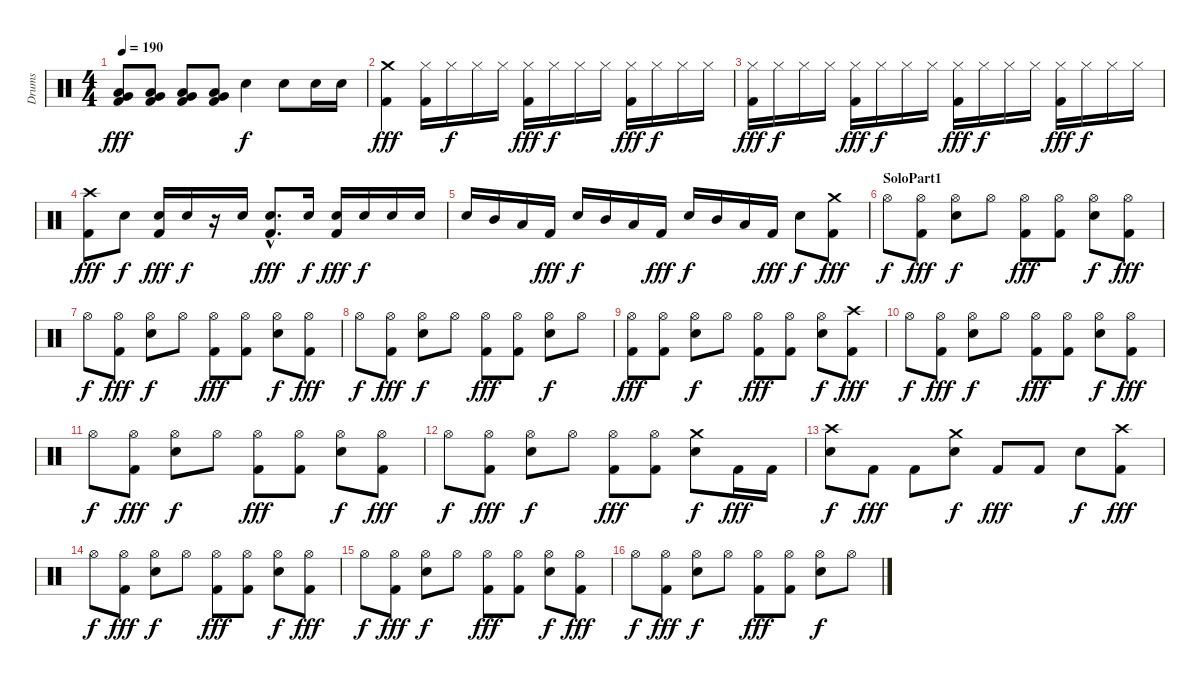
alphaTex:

\track ("Drums" "Drums") {instrument percussion}
\staff {score}
\articulation defaults
\ts (4 4)
\tempo 190
\clef neutral
\ks c
("Very Low Tom (hit)" "Low Floor Tom (hit)" "Kick (hit) 2").8{dy fff} ("Very Low Tom (hit)" "Low Floor Tom (hit)" "Kick (hit) 2").8 ("Very Low Tom (hit)" "Low Floor Tom (hit)" "Kick (hit) 2").8 ("Very Low Tom (hit)" "Low Floor Tom (hit)" "Kick (hit) 2").8 "Electric Snare (hit)".4{dy f} "Electric Snare (hit)".8 "Electric Snare (hit)".16 "Electric Snare (hit)".16 |
("Crash medium (hit)" "Kick (hit) 2").4{dy fff} ("Hi-Hat (closed)" "Kick (hit) 2").16 "Hi-Hat (closed)".16{dy f} "Hi-Hat (closed)".16 "Hi-Hat (closed)".16 ("Hi-Hat (closed)" "Kick (hit) 2").16{dy fff} "Hi-Hat (closed)".16{dy f} "Hi-Hat (closed)".16 "Hi-Hat (closed)".16 ("Hi-Hat (closed)" "Kick (hit) 2").16{dy fff} "Hi-Hat (closed)".16{dy f} "Hi-Hat (closed)".16 "Hi-Hat (closed)".16 |
("Hi-Hat (closed)" "Kick (hit) 2").16{dy fff} "Hi-Hat (closed)".16{dy f} "Hi-Hat (closed)".16 "Hi-Hat (closed)".16 ("Hi-Hat (closed)" "Kick (hit) 2").16{dy fff} "Hi-Hat (closed)".16{dy f} "Hi-Hat (closed)".16 "Hi-Hat (closed)".16 ("Hi-Hat (closed)" "Kick (hit) 2").16{dy fff} "Hi-Hat (closed)".16{dy f} "Hi-Hat (closed)".16 "Hi-Hat (closed)".16 ("Hi-Hat (closed)" "Kick (hit) 2").16{dy fff} "Hi-Hat (closed)".16{dy f} "Hi-Hat (closed)".16 "Hi-Hat (closed)".16 |
("Crash high (hit)" "Kick (hit) 2").8{dy fff} "Electric Snare (hit)".8{dy f} ("Electric Snare (hit)" "Kick (hit) 2").16{dy fff} "Electric Snare (hit)".16{dy f} r.16 "Electric Snare (hit)".16 ("Electric Snare (hit)"{hac} "Kick (hit) 2"{hac}).8{d dy fff} "Electric Snare (hit)".16{dy f} ("Electric Snare (hit)" "Kick (hit) 2").16{dy fff} "Electric Snare (hit)".16{dy f} "Electric Snare (hit)".16 "Electric Snare (hit)".16 |
"Electric Snare (hit)".16 "Mid Tom (hit)".16 "Low Tom (hit)".16 "Kick (hit) 2".16{dy fff} "Electric Snare (hit)".16{dy f} "Mid Tom (hit)".16 "Low Tom (hit)".16 "Kick (hit) 2".16{dy fff} "Electric Snare (hit)".16{dy f} "Mid Tom (hit)".16 "Low Tom (hit)".16 "Kick (hit) 2".16{dy fff} "Electric Snare (hit)".8{dy f} ("Crash medium (hit)" "Kick (hit) 2").8{dy fff} |
\section ("" "SoloPart1")
"Hi-Hat (open)".8{dy f} ("Hi-Hat (open)" "Kick (hit) 2").8{dy fff} ("Hi-Hat (open)" "Electric Snare (hit)").8{dy f} "Hi-Hat (open)".8 ("Hi-Hat (open)" "Kick (hit) 2").8{dy fff} ("Hi-Hat (open)" "Kick (hit) 2").8 ("Hi-Hat (open)" "Electric Snare (hit)").8{dy f} ("Hi-Hat (open)" "Kick (hit) 2").8{dy fff} |
"Hi-Hat (open)".8{dy f} ("Hi-Hat (open)" "Kick (hit) 2").8{dy fff} ("Hi-Hat (open)" "Electric Snare (hit)").8{dy f} "Hi-Hat (open)".8 ("Hi-Hat (open)" "Kick (hit) 2").8{dy fff} ("Hi-Hat (open)" "Kick (hit) 2").8 ("Hi-Hat (open)" "Electric Snare (hit)").8{dy f} ("Hi-Hat (open)" "Kick (hit) 2").8{dy fff} |
"Hi-Hat (open)".8{dy f} ("Hi-Hat (open)" "Kick (hit) 2").8{dy fff} ("Hi-Hat (open)" "Electric Snare (hit)").8{dy f} "Hi-Hat (open)".8 ("Hi-Hat (open)" "Kick (hit) 2").8{dy fff} ("Hi-Hat (open)" "Kick (hit) 2").8 ("Hi-Hat (open)" "Electric Snare (hit)").8{dy f} "Hi-Hat (open)".8 |
("Hi-Hat (open)" "Kick (hit) 2").8{dy fff} ("Hi-Hat (open)" "Kick (hit) 2").8 ("Hi-Hat (open)" "Electric Snare (hit)").8{dy f} "Hi-Hat (open)".8 ("Hi-Hat (open)" "Kick (hit) 2").8{dy fff} ("Hi-Hat (open)" "Kick (hit) 2").8 ("Hi-Hat (open)" "Electric Snare (hit)").8{dy f} ("Crash high (hit)" "Kick (hit) 2").8{dy fff} |
"Hi-Hat (open)".8{dy f} ("Hi-Hat (open)" "Kick (hit) 2").8{dy fff} ("Hi-Hat (open)" "Electric Snare (hit)").8{dy f} "Hi-Hat (open)".8 ("Hi-Hat (open)" "Kick (hit) 2").8{dy fff} ("Hi-Hat (open)" "Kick (hit) 2").8 ("Hi-Hat (open)" "Electric Snare (hit)").8{dy f} ("Hi-Hat (open)" "Kick (hit) 2").8{dy fff} |
"Hi-Hat (open)".8{dy f} ("Hi-Hat (open)" "Kick (hit) 2").8{dy fff} ("Hi-Hat (open)" "Electric Snare (hit)").8{dy f} "Hi-Hat (open)".8 ("Hi-Hat (open)" "Kick (hit) 2").8{dy fff} ("Hi-Hat (open)" "Kick (hit) 2").8 ("Hi-Hat (open)" "Electric Snare (hit)").8{dy f} ("Hi-Hat (open)" "Kick (hit) 2").8{dy fff} |
"Hi-Hat (open)".8{dy f} ("Hi-Hat (open)" "Kick (hit) 2").8{dy fff} ("Hi-Hat (open)" "Electric Snare (hit)").8{dy f} "Hi-Hat (open)".8 ("Hi-Hat (open)" "Kick (hit) 2").8{dy fff} ("Hi-Hat (open)" "Kick (hit) 2").8 ("Crash medium (hit)" "Electric Snare (hit)").8{dy f} "Kick (hit) 2".16{dy fff} "Kick (hit) 2".16 |
("Crash high (hit)" "Electric Snare (hit)").8{dy f} "Kick (hit) 2".8{dy fff} "Kick (hit) 2".8 ("Crash medium (hit)" "Electric Snare (hit)").8{dy f} "Kick (hit) 2".8{dy fff} "Kick (hit) 2".8 "Electric Snare (hit)".8{dy f} ("Crash high (hit)" "Kick (hit) 2").8{dy fff} |
"Hi-Hat (open)".8{dy f} ("Hi-Hat (open)" "Kick (hit) 2").8{dy fff} ("Hi-Hat (open)" "Electric Snare (hit)").8{dy f} "Hi-Hat (open)".8 ("Hi-Hat (open)" "Kick (hit) 2").8{dy fff} ("Hi-Hat (open)" "Kick (hit) 2").8 ("Hi-Hat (open)" "Electric Snare (hit)").8{dy f} ("Hi-Hat (open)" "Kick (hit) 2").8{dy fff} |
"Hi-Hat (open)".8{dy f} ("Hi-Hat (open)" "Kick (hit) 2").8{dy fff} ("Hi-Hat (open)" "Electric Snare (hit)").8{dy f} "Hi-Hat (open)".8 ("Hi-Hat (open)" "Kick (hit) 2").8{dy fff} ("Hi-Hat (open)" "Kick (hit) 2").8 ("Hi-Hat (open)" "Electric Snare (hit)").8{dy f} ("Hi-Hat (open)" "Kick (hit) 2").8{dy fff} |
"Hi-Hat (open)".8{dy f} ("Hi-Hat (open)" "Kick (hit) 2").8{dy fff} ("Hi-Hat (open)" "Electric Snare (hit)").8{dy f} "Hi-Hat (open)".8 ("Hi-Hat (open)" "Kick (hit) 2").8{dy fff} ("Hi-Hat (open)" "Kick (hit) 2").8 ("Hi-Hat (open)" "Electric Snare (hit)").8{dy f} "Hi-Hat (open)".8
